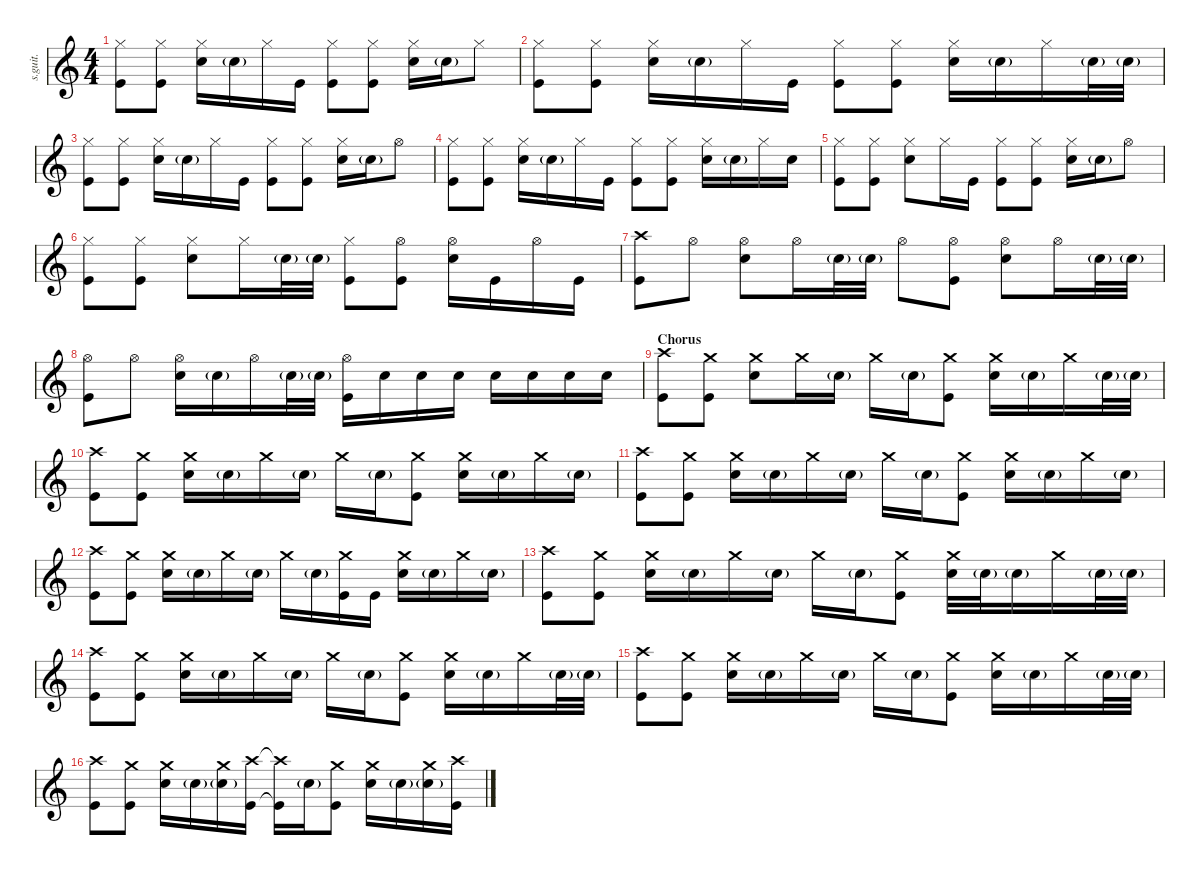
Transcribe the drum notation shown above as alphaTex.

\defaultSystemsLayout 4
\hideDynamics
\bracketExtendMode nobrackets
\track ("Chad Smith" "s.guit.") {instrument percussion}
\staff {score}
\articulation defaults
\ts (4 4)
\tempo (96 hide)
\clef g2
\ks c
("Hi-Hat (closed)" "Kick (hit)").8{dy f} ("Hi-Hat (closed)" "Kick (hit)").8{dy p} ("Hi-Hat (closed)" "Snare (hit) 2").16{dy f} "Snare (hit) 2"{g}.16{dy pp} "Hi-Hat (closed)".16{dy p} "Kick (hit)".16{dy f} ("Hi-Hat (closed)" "Kick (hit)").8 ("Hi-Hat (closed)" "Kick (hit)").8{dy p} ("Hi-Hat (closed)" "Snare (hit) 2").16{dy f} "Snare (hit) 2"{g}.16{dy pp} "Hi-Hat (closed)".8{dy p} |
("Hi-Hat (closed)" "Kick (hit)").8{dy f} ("Hi-Hat (closed)" "Kick (hit)").8{dy p} ("Hi-Hat (closed)" "Snare (hit) 2").16{dy f} "Snare (hit) 2"{g}.16{dy pp} "Hi-Hat (closed)".16{dy p} "Kick (hit)".16{dy f} ("Hi-Hat (closed)" "Kick (hit)").8 ("Hi-Hat (closed)" "Kick (hit)").8{dy p} ("Hi-Hat (closed)" "Snare (hit) 2").16{dy f} "Snare (hit) 2"{g}.16{dy pp} "Hi-Hat (closed)".16{dy p} "Snare (hit) 2"{g}.32{dy pp} "Snare (hit) 2"{g}.32 |
("Hi-Hat (closed)" "Kick (hit)").8{dy f} ("Hi-Hat (closed)" "Kick (hit)").8{dy p} ("Hi-Hat (closed)" "Snare (hit) 2").16{dy f} "Snare (hit) 2"{g}.16{dy pp} "Hi-Hat (closed)".16{dy p} "Kick (hit)".16{dy f} ("Hi-Hat (closed)" "Kick (hit)").8 ("Hi-Hat (closed)" "Kick (hit)").8{dy p} ("Hi-Hat (closed)" "Snare (hit) 2").16{dy f} "Snare (hit) 2"{g}.16{dy pp} "Hi-Hat (open)".8{dy f} |
("Hi-Hat (closed)" "Kick (hit)").8 ("Hi-Hat (closed)" "Kick (hit)").8{dy p} ("Hi-Hat (closed)" "Snare (hit) 2").16{dy f} "Snare (hit) 2"{g}.16{dy pp} "Hi-Hat (closed)".16{dy p} "Kick (hit)".16{dy f} ("Hi-Hat (closed)" "Kick (hit)").8 ("Hi-Hat (closed)" "Kick (hit)").8{dy p} ("Hi-Hat (closed)" "Snare (hit) 2").16{dy f} "Snare (hit) 2"{g}.16{dy pp} "Hi-Hat (closed)".16{dy p} "Snare (hit) 2".16{dy f} |
("Hi-Hat (closed)" "Kick (hit)").8 ("Hi-Hat (closed)" "Kick (hit)").8{dy p} ("Hi-Hat (closed)" "Snare (hit) 2").8{dy f} "Hi-Hat (closed)".16{dy p} "Kick (hit)".16{dy f} ("Hi-Hat (closed)" "Kick (hit)").8 ("Hi-Hat (closed)" "Kick (hit)").8{dy p} ("Hi-Hat (closed)" "Snare (hit) 2").16{dy f} "Snare (hit) 2"{g}.16{dy pp} "Hi-Hat (open)".8{dy f} |
("Hi-Hat (closed)" "Kick (hit)").8 ("Hi-Hat (closed)" "Kick (hit)").8{dy p} ("Hi-Hat (closed)" "Snare (hit) 2").8{dy f} "Hi-Hat (closed)".16{dy p} "Snare (hit) 2"{g}.32{dy pp} "Snare (hit) 2"{g}.32 ("Hi-Hat (closed)" "Kick (hit)").8{dy f} ("Hi-Hat (open)" "Kick (hit)").8{dy p} ("Hi-Hat (open)" "Snare (hit) 2").16{dy mf} "Kick (hit)".16{dy f} "Hi-Hat (open)".16 "Kick (hit)".16 |
("Crash high (hit)" "Kick (hit)").8 "Hi-Hat (open)".8{dy p} ("Hi-Hat (open)" "Snare (hit) 2").8{dy f} "Hi-Hat (open)".16{dy p} "Snare (hit) 2"{g}.32{dy pp} "Snare (hit) 2"{g}.32 "Hi-Hat (open)".8{dy f} ("Hi-Hat (open)" "Kick (hit)").8{dy p} ("Hi-Hat (open)" "Snare (hit) 2").8{dy f} "Hi-Hat (open)".16{dy p} "Snare (hit) 2"{g}.32{dy pp} "Snare (hit) 2"{g}.32 |
("Hi-Hat (open)" "Kick (hit)").8{dy f} "Hi-Hat (open)".8{dy p} ("Hi-Hat (open)" "Snare (hit) 2").16{dy f} "Snare (hit) 2"{g}.16{dy pp} "Hi-Hat (open)".16{dy p} "Snare (hit) 2"{g}.32{dy pp} "Snare (hit) 2"{g}.32 ("Hi-Hat (open)" "Kick (hit)").16{dy f} "Snare (hit) 2".16{dy p} "Snare (hit) 2".16{dy mp} "Snare (hit) 2".16 "Snare (hit) 2".16{dy mf} "Snare (hit) 2".16 "Snare (hit) 2".16{dy f} "Snare (hit) 2".16 |
\section ("" "Chorus")
("Crash high (hit)" "Kick (hit)").8 ("Crash medium (hit)" "Kick (hit)").8 ("Crash medium (hit)" "Snare (hit) 2").8 "Crash medium (hit)".16 "Snare (hit) 2"{g}.16{dy pp} "Crash medium (hit)".16{dy f} "Snare (hit) 2"{g}.16{dy pp} ("Crash medium (hit)" "Kick (hit)").8{dy f} ("Crash medium (hit)" "Snare (hit) 2").16 "Snare (hit) 2"{g}.16{dy pp} "Crash medium (hit)".16{dy f} "Snare (hit) 2"{g}.32{dy pp} "Snare (hit) 2"{g}.32 |
("Crash high (hit)" "Kick (hit)").8{dy f} ("Crash medium (hit)" "Kick (hit)").8 ("Crash medium (hit)" "Snare (hit) 2").16 "Snare (hit) 2"{g}.16{dy pp} "Crash medium (hit)".16{dy f} "Snare (hit) 2"{g}.16{dy pp} "Crash medium (hit)".16{dy f} "Snare (hit) 2"{g}.16{dy pp} ("Crash medium (hit)" "Kick (hit)").8{dy f} ("Crash medium (hit)" "Snare (hit) 2").16 "Snare (hit) 2"{g}.16{dy pp} "Crash medium (hit)".16{dy f} "Snare (hit) 2"{g}.16{dy pp} |
("Crash high (hit)" "Kick (hit)").8{dy f} ("Crash medium (hit)" "Kick (hit)").8 ("Crash medium (hit)" "Snare (hit) 2").16 "Snare (hit) 2"{g}.16{dy pp} "Crash medium (hit)".16{dy f} "Snare (hit) 2"{g}.16{dy pp} "Crash medium (hit)".16{dy f} "Snare (hit) 2"{g}.16{dy pp} ("Crash medium (hit)" "Kick (hit)").8{dy f} ("Crash medium (hit)" "Snare (hit) 2").16 "Snare (hit) 2"{g}.16{dy pp} "Crash medium (hit)".16{dy f} "Snare (hit) 2"{g}.16{dy pp} |
("Crash high (hit)" "Kick (hit)").8{dy f} ("Crash medium (hit)" "Kick (hit)").8 ("Crash medium (hit)" "Snare (hit) 2").16 "Snare (hit) 2"{g}.16{dy pp} "Crash medium (hit)".16{dy f} "Snare (hit) 2"{g}.16{dy pp} "Crash medium (hit)".16{dy f} "Snare (hit) 2"{g}.16{dy pp} ("Crash medium (hit)" "Kick (hit)").16{dy f} "Kick (hit)".16 ("Crash medium (hit)" "Snare (hit) 2").16 "Snare (hit) 2"{g}.16{dy pp} "Crash medium (hit)".16{dy f} "Snare (hit) 2"{g}.16{dy pp} |
("Crash high (hit)" "Kick (hit)").8{dy f} ("Crash medium (hit)" "Kick (hit)").8 ("Crash medium (hit)" "Snare (hit) 2").16 "Snare (hit) 2"{g}.16{dy pp} "Crash medium (hit)".16{dy f} "Snare (hit) 2"{g}.16{dy pp} "Crash medium (hit)".16{dy f} "Snare (hit) 2"{g}.16{dy pp} ("Crash medium (hit)" "Kick (hit)").8{dy f} ("Crash medium (hit)" "Snare (hit) 2").32 "Snare (hit) 2"{g}.32{dy pp} "Snare (hit) 2"{g}.16 "Crash medium (hit)".16{dy f} "Snare (hit) 2"{g}.32{dy pp} "Snare (hit) 2"{g}.32 |
("Crash high (hit)" "Kick (hit)").8{dy f} ("Crash medium (hit)" "Kick (hit)").8 ("Crash medium (hit)" "Snare (hit) 2").16 "Snare (hit) 2"{g}.16{dy pp} "Crash medium (hit)".16{dy f} "Snare (hit) 2"{g}.16{dy pp} "Crash medium (hit)".16{dy f} "Snare (hit) 2"{g}.16{dy pp} ("Crash medium (hit)" "Kick (hit)").8{dy f} ("Crash medium (hit)" "Snare (hit) 2").16 "Snare (hit) 2"{g}.16{dy pp} "Crash medium (hit)".16{dy f} "Snare (hit) 2"{g}.32{dy pp} "Snare (hit) 2"{g}.32 |
("Crash high (hit)" "Kick (hit)").8{dy f} ("Crash medium (hit)" "Kick (hit)").8 ("Crash medium (hit)" "Snare (hit) 2").16 "Snare (hit) 2"{g}.16{dy pp} "Crash medium (hit)".16{dy f} "Snare (hit) 2"{g}.16{dy pp} "Crash medium (hit)".16{dy f} "Snare (hit) 2"{g}.16{dy pp} ("Crash medium (hit)" "Kick (hit)").8{dy f} ("Crash medium (hit)" "Snare (hit) 2").16 "Snare (hit) 2"{g}.16{dy pp} "Crash medium (hit)".16{dy f} "Snare (hit) 2"{g}.32{dy pp} "Snare (hit) 2"{g}.32 |
("Crash high (hit)" "Kick (hit)").8{dy f} ("Crash medium (hit)" "Kick (hit)").8 ("Crash medium (hit)" "Snare (hit) 2").16 "Snare (hit) 2"{g}.16{dy pp} ("Crash medium (hit)" "Snare (hit) 2"{g}).16{dy f} ("Crash high (hit)" "Kick (hit)").16 ("Crash high (hit)"{t} "Kick (hit)"{t}).16 "Snare (hit) 2"{g}.16{dy pp} ("Crash medium (hit)" "Kick (hit)").8{dy f} ("Crash medium (hit)" "Snare (hit) 2").16 "Snare (hit) 2"{g}.16{dy pp} ("Crash medium (hit)" "Snare (hit) 2"{g}).16{dy f} ("Crash high (hit)" "Kick (hit)").16
